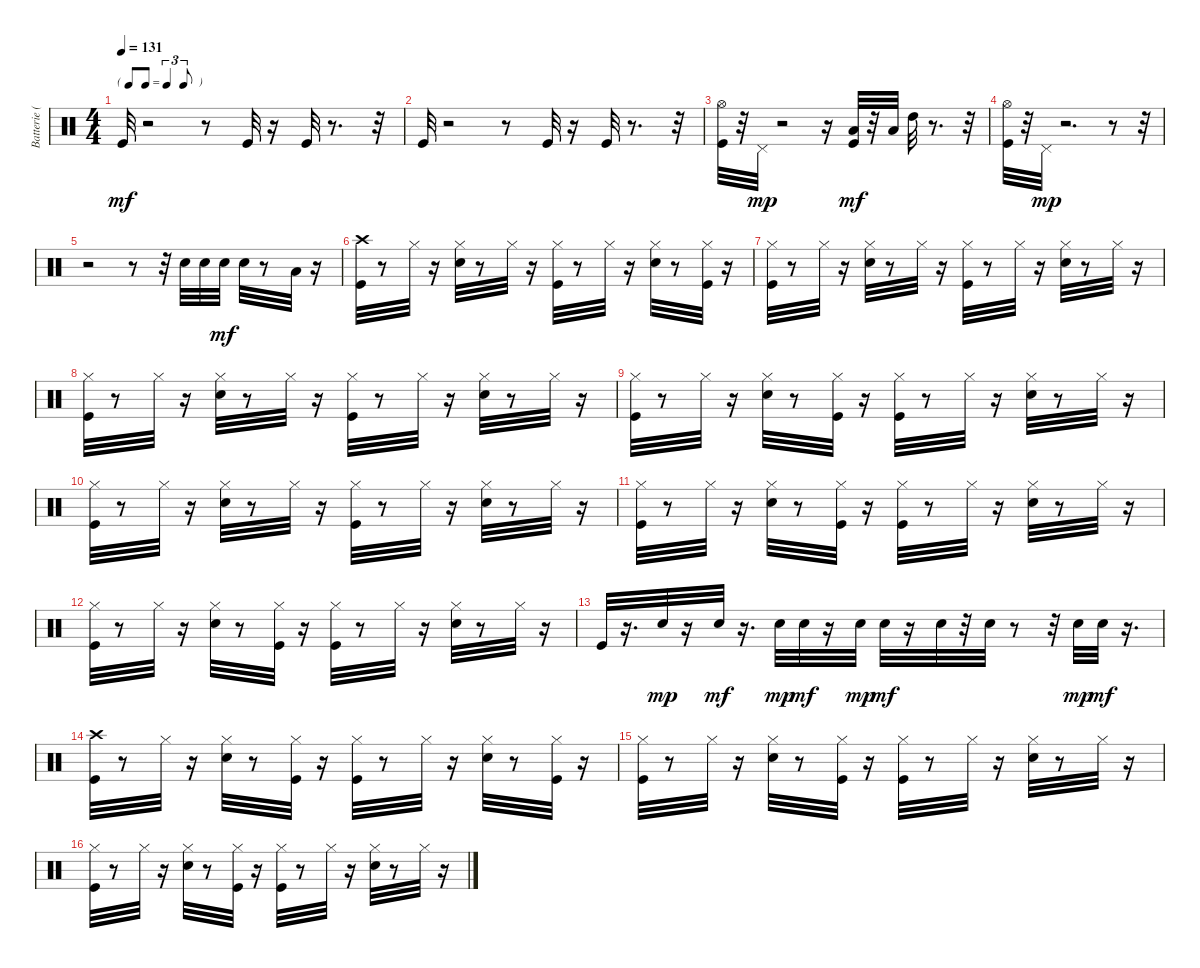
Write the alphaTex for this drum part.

\track ("Batterie (midi)" "Batterie (") {instrument percussion}
\staff {score}
\articulation defaults
\ts (4 4)
\tf triplet8th
\tempo 131
\clef neutral
\ks c "Kick (hit)".32{dy mf}
r.2 r.8 "Kick (hit)".32 r.16 "Kick (hit)".32 r.8{d} r.32 |
"Kick (hit)".32 r.2 r.8 "Kick (hit)".32 r.16 "Kick (hit)".32 r.8{d} r.32 |
("Kick (hit)" "Hi-Hat (open)").32 r.32 "Pedal Hi-Hat (hit)".32{dy mp} r.2 r.16 ("Kick (hit)" "Low Tom (hit)").32{dy mf} r.32 "Low Tom (hit)".32 "High Tom (hit)".32 r.8{d} r.32 |
("Kick (hit)" "Hi-Hat (open)").32 r.32 "Pedal Hi-Hat (hit)".32{dy mp} r.2{d} r.8 r.32 |
r.2 r.8 r.32 "Snare (hit) 2".32 "Snare (hit) 2".32 "Snare (hit) 2".32{dy mf} "Snare (hit) 2".32 r.8 "Low Floor Tom (hit)".32 r.16 |
("Kick (hit)" "Crash high (hit)").32 r.8 "Hi-Hat (closed)".32 r.16 ("Electric Snare (hit)" "Hi-Hat (closed)").32 r.8 "Hi-Hat (closed)".32 r.16 ("Kick (hit)" "Hi-Hat (closed)").32 r.8 "Hi-Hat (closed)".32 r.16 ("Electric Snare (hit)" "Hi-Hat (closed)").32 r.8 ("Kick (hit)" "Hi-Hat (closed)").32 r.16 |
("Kick (hit)" "Hi-Hat (closed)").32 r.8 "Hi-Hat (closed)".32 r.16 ("Electric Snare (hit)" "Hi-Hat (closed)").32 r.8 "Hi-Hat (closed)".32 r.16 ("Kick (hit)" "Hi-Hat (closed)").32 r.8 "Hi-Hat (closed)".32 r.16 ("Electric Snare (hit)" "Hi-Hat (closed)").32 r.8 "Hi-Hat (closed)".32 r.16 |
("Kick (hit)" "Hi-Hat (closed)").32 r.8 "Hi-Hat (closed)".32 r.16 ("Electric Snare (hit)" "Hi-Hat (closed)").32 r.8 "Hi-Hat (closed)".32 r.16 ("Kick (hit)" "Hi-Hat (closed)").32 r.8 "Hi-Hat (closed)".32 r.16 ("Electric Snare (hit)" "Hi-Hat (closed)").32 r.8 "Hi-Hat (closed)".32 r.16 |
("Kick (hit)" "Hi-Hat (closed)").32 r.8 "Hi-Hat (closed)".32 r.16 ("Electric Snare (hit)" "Hi-Hat (closed)").32 r.8 ("Kick (hit)" "Hi-Hat (closed)").32 r.16 ("Kick (hit)" "Hi-Hat (closed)").32 r.8 "Hi-Hat (closed)".32 r.16 ("Electric Snare (hit)" "Hi-Hat (closed)").32 r.8 "Hi-Hat (closed)".32 r.16 |
("Kick (hit)" "Hi-Hat (closed)").32 r.8 "Hi-Hat (closed)".32 r.16 ("Electric Snare (hit)" "Hi-Hat (closed)").32 r.8 "Hi-Hat (closed)".32 r.16 ("Kick (hit)" "Hi-Hat (closed)").32 r.8 "Hi-Hat (closed)".32 r.16 ("Electric Snare (hit)" "Hi-Hat (closed)").32 r.8 "Hi-Hat (closed)".32 r.16 |
("Kick (hit)" "Hi-Hat (closed)").32 r.8 "Hi-Hat (closed)".32 r.16 ("Electric Snare (hit)" "Hi-Hat (closed)").32 r.8 ("Kick (hit)" "Hi-Hat (closed)").32 r.16 ("Kick (hit)" "Hi-Hat (closed)").32 r.8 "Hi-Hat (closed)".32 r.16 ("Electric Snare (hit)" "Hi-Hat (closed)").32 r.8 "Hi-Hat (closed)".32 r.16 |
("Kick (hit)" "Hi-Hat (closed)").32 r.8 "Hi-Hat (closed)".32 r.16 ("Electric Snare (hit)" "Hi-Hat (closed)").32 r.8 ("Kick (hit)" "Hi-Hat (closed)").32 r.16 ("Kick (hit)" "Hi-Hat (closed)").32 r.8 "Hi-Hat (closed)".32 r.16 ("Electric Snare (hit)" "Hi-Hat (closed)").32 r.8 "Hi-Hat (closed)".32 r.16 |
"Kick (hit)".32 r.16{d} "Snare (hit) 2".32{dy mp} r.16 "Snare (hit) 2".32{dy mf} r.16{d} "Snare (hit) 2".32{dy mp} "Snare (hit) 2".32{dy mf} r.16 "Snare (hit) 2".32{dy mp} "Snare (hit) 2".32{dy mf} r.16 "Snare (hit) 2".32 r.32 "Snare (hit) 2".32 r.8 r.32 "Snare (hit) 2".32{dy mp} "Snare (hit) 2".32{dy mf} r.16{d} |
("Kick (hit)" "Crash high (hit)").32 r.8 "Hi-Hat (closed)".32 r.16 ("Electric Snare (hit)" "Hi-Hat (closed)").32 r.8 ("Kick (hit)" "Hi-Hat (closed)").32 r.16 ("Kick (hit)" "Hi-Hat (closed)").32 r.8 "Hi-Hat (closed)".32 r.16 ("Electric Snare (hit)" "Hi-Hat (closed)").32 r.8 ("Kick (hit)" "Hi-Hat (closed)").32 r.16 |
("Kick (hit)" "Hi-Hat (closed)").32 r.8 "Hi-Hat (closed)".32 r.16 ("Electric Snare (hit)" "Hi-Hat (closed)").32 r.8 ("Kick (hit)" "Hi-Hat (closed)").32 r.16 ("Kick (hit)" "Hi-Hat (closed)").32 r.8 "Hi-Hat (closed)".32 r.16 ("Electric Snare (hit)" "Hi-Hat (closed)").32 r.8 "Hi-Hat (closed)".32 r.16 |
("Kick (hit)" "Hi-Hat (closed)").32 r.8 "Hi-Hat (closed)".32 r.16 ("Electric Snare (hit)" "Hi-Hat (closed)").32 r.8 ("Kick (hit)" "Hi-Hat (closed)").32 r.16 ("Kick (hit)" "Hi-Hat (closed)").32 r.8 "Hi-Hat (closed)".32 r.16 ("Electric Snare (hit)" "Hi-Hat (closed)").32 r.8 "Hi-Hat (closed)".32 r.16
